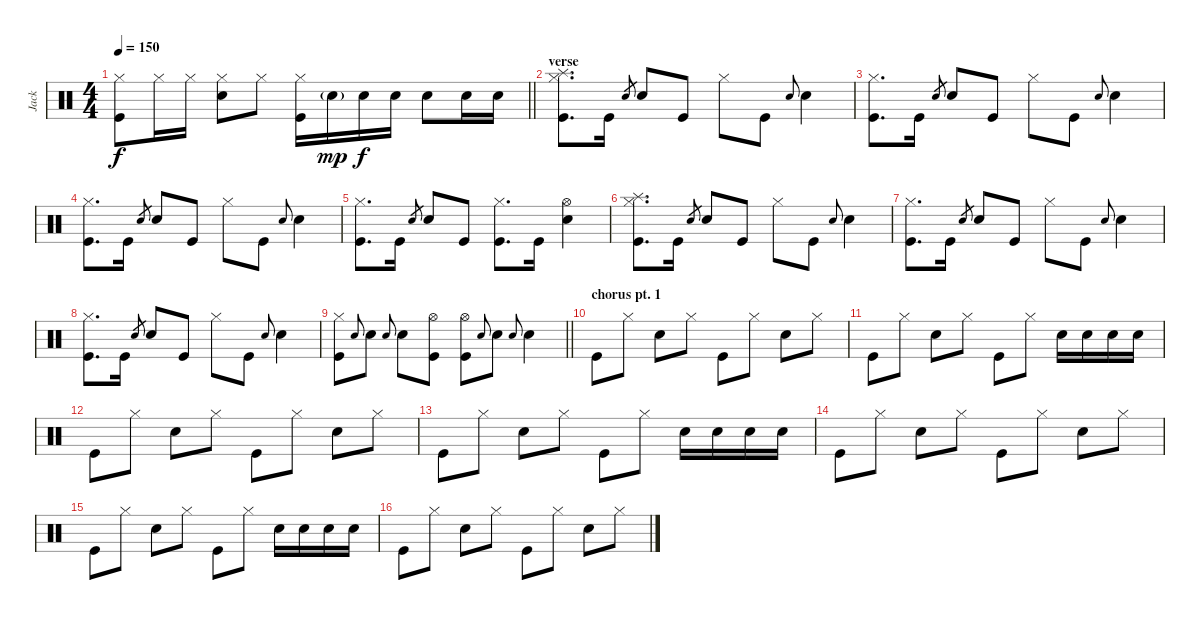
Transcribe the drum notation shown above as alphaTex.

\track ("Jack" "Jack") {instrument percussion}
\staff {score}
\articulation defaults
\ts (4 4)
\tempo 150
\clef neutral
\barLineRight lightlight
\ks c
("Hi-Hat (closed)" "Kick (hit)").8{dy f} "Hi-Hat (closed)".16 "Hi-Hat (closed)".16 ("Hi-Hat (closed)" "Electric Snare (hit)").8 "Hi-Hat (closed)".8 ("Hi-Hat (closed)" "Kick (hit)").16 "Electric Snare (hit)"{g}.16{dy mp} "Electric Snare (hit)".16{dy f} "Electric Snare (hit)".16 "Electric Snare (hit)".8 "Electric Snare (hit)".16 "Electric Snare (hit)".16 |
\section ("" "verse")
("Splash (hit)" "Hi-Hat (closed)" "Kick (hit)").8{d} "Kick (hit)".16 "Electric Snare (hit)".8{gr} "Electric Snare (hit)".8 "Kick (hit)".8 "Hi-Hat (closed)".8 "Kick (hit)".8 "Electric Snare (hit)".8{gr onbeat} "Electric Snare (hit)".4 |
("Hi-Hat (closed)" "Kick (hit)").8{d} "Kick (hit)".16 "Electric Snare (hit)".8{gr} "Electric Snare (hit)".8 "Kick (hit)".8 "Hi-Hat (closed)".8 "Kick (hit)".8 "Electric Snare (hit)".8{gr onbeat} "Electric Snare (hit)".4 |
("Hi-Hat (closed)" "Kick (hit)").8{d} "Kick (hit)".16 "Electric Snare (hit)".8{gr} "Electric Snare (hit)".8 "Kick (hit)".8 "Hi-Hat (closed)".8 "Kick (hit)".8 "Electric Snare (hit)".8{gr onbeat} "Electric Snare (hit)".4 |
("Hi-Hat (closed)" "Kick (hit)").8{d} "Kick (hit)".16 "Electric Snare (hit)".8{gr} "Electric Snare (hit)".8 "Kick (hit)".8 ("Hi-Hat (closed)" "Kick (hit)").8{d} "Kick (hit)".16 ("Hi-Hat (open)" "Electric Snare (hit)").4 |
("Splash (hit)" "Hi-Hat (closed)" "Kick (hit)").8{d} "Kick (hit)".16 "Electric Snare (hit)".8{gr} "Electric Snare (hit)".8 "Kick (hit)".8 "Hi-Hat (closed)".8 "Kick (hit)".8 "Electric Snare (hit)".8{gr onbeat} "Electric Snare (hit)".4 |
("Hi-Hat (closed)" "Kick (hit)").8{d} "Kick (hit)".16 "Electric Snare (hit)".8{gr} "Electric Snare (hit)".8 "Kick (hit)".8 "Hi-Hat (closed)".8 "Kick (hit)".8 "Electric Snare (hit)".8{gr onbeat} "Electric Snare (hit)".4 |
("Hi-Hat (closed)" "Kick (hit)").8{d} "Kick (hit)".16 "Electric Snare (hit)".8{gr} "Electric Snare (hit)".8 "Kick (hit)".8 "Hi-Hat (closed)".8 "Kick (hit)".8 "Electric Snare (hit)".8{gr onbeat} "Electric Snare (hit)".4 |
\barLineRight lightlight
("Hi-Hat (closed)" "Kick (hit)").8 "Electric Snare (hit)".8{gr onbeat} "Electric Snare (hit)".8 "Electric Snare (hit)".8{gr onbeat} "Electric Snare (hit)".8 ("Hi-Hat (open)" "Kick (hit)").8 ("Hi-Hat (open)" "Kick (hit)").8 "Electric Snare (hit)".8{gr onbeat} "Electric Snare (hit)".8 "Electric Snare (hit)".8{gr onbeat} "Electric Snare (hit)".4 |
\section ("" "chorus pt. 1")
"Kick (hit)".8 "Hi-Hat (closed)".8 "Electric Snare (hit)".8 "Hi-Hat (closed)".8 "Kick (hit)".8 "Hi-Hat (closed)".8 "Electric Snare (hit)".8 "Hi-Hat (closed)".8 |
"Kick (hit)".8 "Hi-Hat (closed)".8 "Electric Snare (hit)".8 "Hi-Hat (closed)".8 "Kick (hit)".8 "Hi-Hat (closed)".8 "Electric Snare (hit)".16 "Electric Snare (hit)".16 "Electric Snare (hit)".16 "Electric Snare (hit)".16 |
"Kick (hit)".8 "Hi-Hat (closed)".8 "Electric Snare (hit)".8 "Hi-Hat (closed)".8 "Kick (hit)".8 "Hi-Hat (closed)".8 "Electric Snare (hit)".8 "Hi-Hat (closed)".8 |
"Kick (hit)".8 "Hi-Hat (closed)".8 "Electric Snare (hit)".8 "Hi-Hat (closed)".8 "Kick (hit)".8 "Hi-Hat (closed)".8 "Electric Snare (hit)".16 "Electric Snare (hit)".16 "Electric Snare (hit)".16 "Electric Snare (hit)".16 |
"Kick (hit)".8 "Hi-Hat (closed)".8 "Electric Snare (hit)".8 "Hi-Hat (closed)".8 "Kick (hit)".8 "Hi-Hat (closed)".8 "Electric Snare (hit)".8 "Hi-Hat (closed)".8 |
"Kick (hit)".8 "Hi-Hat (closed)".8 "Electric Snare (hit)".8 "Hi-Hat (closed)".8 "Kick (hit)".8 "Hi-Hat (closed)".8 "Electric Snare (hit)".16 "Electric Snare (hit)".16 "Electric Snare (hit)".16 "Electric Snare (hit)".16 |
"Kick (hit)".8 "Hi-Hat (closed)".8 "Electric Snare (hit)".8 "Hi-Hat (closed)".8 "Kick (hit)".8 "Hi-Hat (closed)".8 "Electric Snare (hit)".8 "Hi-Hat (closed)".8
